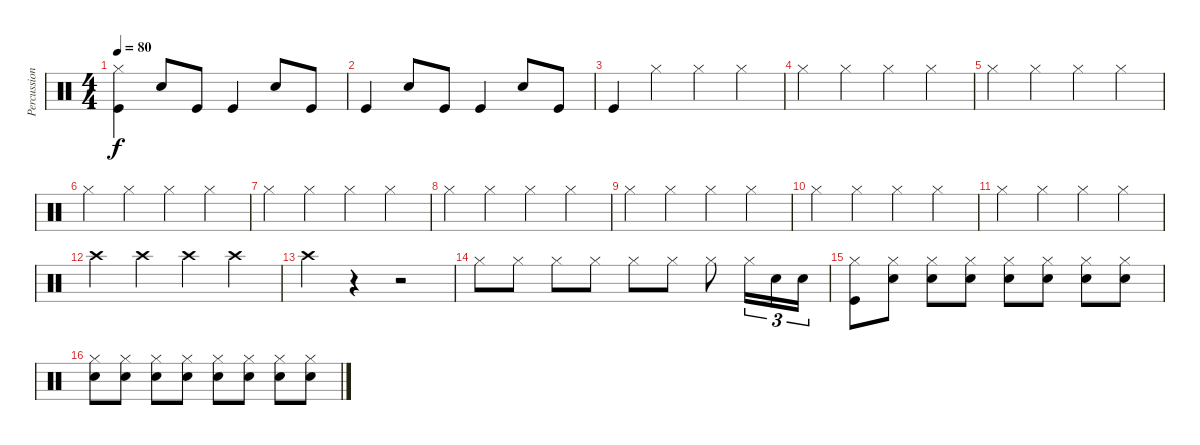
\track ("Percussion" "Percussion") {instrument percussion}
\staff {score}
\articulation defaults
\ts (4 4)
\tempo 80
\clef neutral
\ks c
("Hi-Hat (closed)" "Kick (hit)").4{dy f} "Snare (hit) 2".8 "Kick (hit)".8 "Kick (hit)".4 "Snare (hit) 2".8 "Kick (hit)".8 |
"Kick (hit)".4 "Snare (hit) 2".8 "Kick (hit)".8 "Kick (hit)".4 "Snare (hit) 2".8 "Kick (hit)".8 |
"Kick (hit)".4 "Hi-Hat (closed)".4 "Hi-Hat (closed)".4 "Hi-Hat (closed)".4 |
"Hi-Hat (closed)".4 "Hi-Hat (closed)".4 "Hi-Hat (closed)".4 "Hi-Hat (closed)".4 |
"Hi-Hat (closed)".4 "Hi-Hat (closed)".4 "Hi-Hat (closed)".4 "Hi-Hat (closed)".4 |
"Hi-Hat (closed)".4 "Hi-Hat (closed)".4 "Hi-Hat (closed)".4 "Hi-Hat (closed)".4 |
"Hi-Hat (closed)".4 "Hi-Hat (closed)".4 "Hi-Hat (closed)".4 "Hi-Hat (closed)".4 |
"Hi-Hat (closed)".4 "Hi-Hat (closed)".4 "Hi-Hat (closed)".4 "Hi-Hat (closed)".4 |
"Hi-Hat (closed)".4 "Hi-Hat (closed)".4 "Hi-Hat (closed)".4 "Hi-Hat (closed)".4 |
"Hi-Hat (closed)".4 "Hi-Hat (closed)".4 "Hi-Hat (closed)".4 "Hi-Hat (closed)".4 |
"Hi-Hat (closed)".4 "Hi-Hat (closed)".4 "Hi-Hat (closed)".4 "Hi-Hat (closed)".4 |
"Crash high (hit)".4 "Crash high (hit)".4 "Crash high (hit)".4 "Crash high (hit)".4 |
"Crash high (hit)".4 r.4 r.2 |
"Hi-Hat (closed)".8 "Hi-Hat (closed)".8 "Hi-Hat (closed)".8 "Hi-Hat (closed)".8 "Hi-Hat (closed)".8 "Hi-Hat (closed)".8 "Hi-Hat (closed)".8 "Hi-Hat (closed)".16{tu (3 2)} "Snare (hit) 2".16{tu (3 2)} "Snare (hit) 2".16{tu (3 2)} |
("Hi-Hat (closed)" "Kick (hit)").8 ("Hi-Hat (closed)" "Snare (hit) 2").8 ("Hi-Hat (closed)" "Snare (hit) 2").8 ("Hi-Hat (closed)" "Snare (hit) 2").8 ("Hi-Hat (closed)" "Snare (hit) 2").8 ("Hi-Hat (closed)" "Snare (hit) 2").8 ("Hi-Hat (closed)" "Snare (hit) 2").8 ("Hi-Hat (closed)" "Snare (hit) 2").8 |
("Hi-Hat (closed)" "Snare (hit) 2").8 ("Hi-Hat (closed)" "Snare (hit) 2").8 ("Hi-Hat (closed)" "Snare (hit) 2").8 ("Hi-Hat (closed)" "Snare (hit) 2").8 ("Hi-Hat (closed)" "Snare (hit) 2").8 ("Hi-Hat (closed)" "Snare (hit) 2").8 ("Hi-Hat (closed)" "Snare (hit) 2").8 ("Hi-Hat (closed)" "Snare (hit) 2").8
